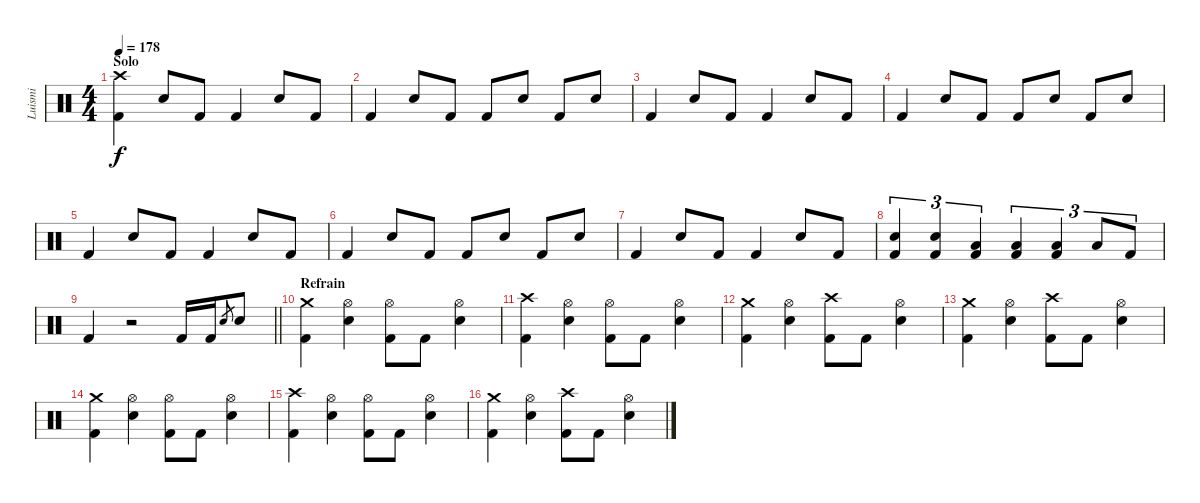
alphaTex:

\track ("Luismi" "Luismi") {instrument percussion}
\staff {score}
\articulation defaults
\ts (4 4)
\section ("" "Solo")
\tempo 178
\clef neutral
\ks c
("Crash high (hit)" "Kick (hit) 2").4{dy f} "Snare (hit) 2".8 "Kick (hit) 2".8 "Kick (hit) 2".4 "Snare (hit) 2".8 "Kick (hit) 2".8 |
"Kick (hit) 2".4 "Snare (hit) 2".8 "Kick (hit) 2".8 "Kick (hit) 2".8 "Snare (hit) 2".8 "Kick (hit) 2".8 "Snare (hit) 2".8 |
"Kick (hit) 2".4 "Snare (hit) 2".8 "Kick (hit) 2".8 "Kick (hit) 2".4 "Snare (hit) 2".8 "Kick (hit) 2".8 |
"Kick (hit) 2".4 "Snare (hit) 2".8 "Kick (hit) 2".8 "Kick (hit) 2".8 "Snare (hit) 2".8 "Kick (hit) 2".8 "Snare (hit) 2".8 |
"Kick (hit) 2".4 "Snare (hit) 2".8 "Kick (hit) 2".8 "Kick (hit) 2".4 "Snare (hit) 2".8 "Kick (hit) 2".8 |
"Kick (hit) 2".4 "Snare (hit) 2".8 "Kick (hit) 2".8 "Kick (hit) 2".8 "Snare (hit) 2".8 "Kick (hit) 2".8 "Snare (hit) 2".8 |
"Kick (hit) 2".4 "Snare (hit) 2".8 "Kick (hit) 2".8 "Kick (hit) 2".4 "Snare (hit) 2".8 "Kick (hit) 2".8 |
("Snare (hit) 2" "Kick (hit) 2").4{tu (3 2)} ("Snare (hit) 2" "Kick (hit) 2").4{tu (3 2)} ("Low Tom (hit)" "Kick (hit) 2").4{tu (3 2)} ("Low Floor Tom (hit)" "Kick (hit) 2").4{tu (3 2)} ("Low Floor Tom (hit)" "Kick (hit) 2").4{tu (3 2)} "Low Floor Tom (hit)".8{tu (3 2)} "Kick (hit) 2".8{tu (3 2)} |
\barLineRight lightlight "Kick (hit) 2".4
r.2 "Kick (hit) 2".16 "Kick (hit) 2".16 "Snare (hit) 2".8{gr} "Snare (hit) 2".8 |
\section ("" "Refrain")
("Crash medium (hit)" "Kick (hit) 2").4 ("Hi-Hat (open)" "Snare (hit) 2").4 ("Hi-Hat (open)" "Kick (hit) 2").8 "Kick (hit) 2".8 ("Hi-Hat (open)" "Snare (hit) 2").4 |
("Crash high (hit)" "Kick (hit) 2").4 ("Hi-Hat (open)" "Snare (hit) 2").4 ("Hi-Hat (open)" "Kick (hit) 2").8 "Kick (hit) 2".8 ("Hi-Hat (open)" "Snare (hit) 2").4 |
("Crash medium (hit)" "Kick (hit) 2").4 ("Hi-Hat (open)" "Snare (hit) 2").4 ("Crash high (hit)" "Kick (hit) 2").8 "Kick (hit) 2".8 ("Hi-Hat (open)" "Snare (hit) 2").4 |
("Crash medium (hit)" "Kick (hit) 2").4 ("Hi-Hat (open)" "Snare (hit) 2").4 ("Crash high (hit)" "Kick (hit) 2").8 "Kick (hit) 2".8 ("Hi-Hat (open)" "Snare (hit) 2").4 |
("Crash medium (hit)" "Kick (hit) 2").4 ("Hi-Hat (open)" "Snare (hit) 2").4 ("Hi-Hat (open)" "Kick (hit) 2").8 "Kick (hit) 2".8 ("Hi-Hat (open)" "Snare (hit) 2").4 |
("Crash high (hit)" "Kick (hit) 2").4 ("Hi-Hat (open)" "Snare (hit) 2").4 ("Hi-Hat (open)" "Kick (hit) 2").8 "Kick (hit) 2".8 ("Hi-Hat (open)" "Snare (hit) 2").4 |
("Crash medium (hit)" "Kick (hit) 2").4 ("Hi-Hat (open)" "Snare (hit) 2").4 ("Crash high (hit)" "Kick (hit) 2").8 "Kick (hit) 2".8 ("Hi-Hat (open)" "Snare (hit) 2").4
